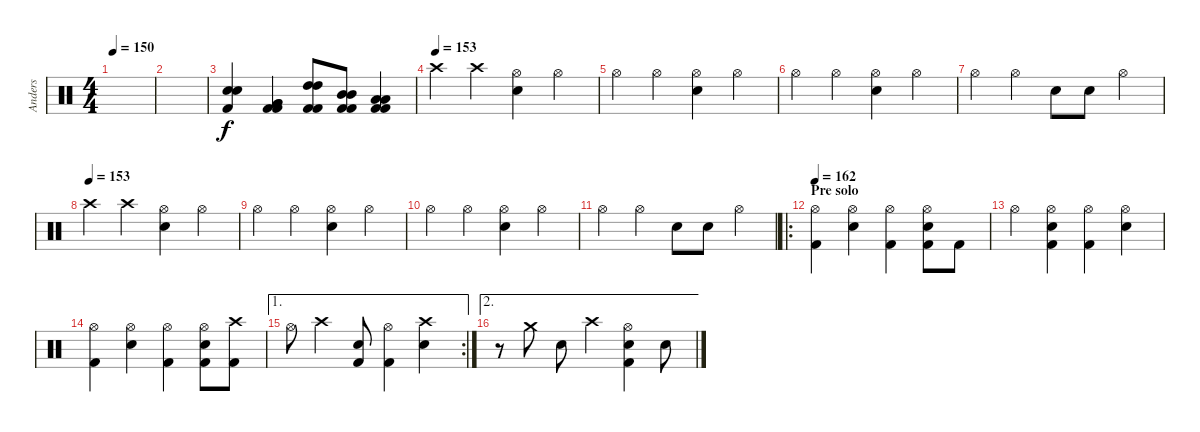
\track ("Anders" "Anders") {instrument percussion}
\staff {score}
\articulation defaults
\ts (4 4)
\tempo 150
\clef neutral
\ks c
|
|
("Snare (hit) 2" "Snare (hit) 2" "Kick (hit) 2").4 ("Kick (hit) 2" "Very Low Tom (hit)" "Very Low Tom (hit)" "Kick (hit) 2").4 ("High Tom (hit)" "Kick (hit) 2" "High Tom (hit)" "Kick (hit) 2").8 ("Mid Tom (hit)" "Kick (hit) 2" "Mid Tom (hit)" "Kick (hit) 2").8 ("Low Tom (hit)" "Kick (hit) 2" "Low Tom (hit)" "Kick (hit) 2").4 |
\tempo (153)
"Crash high (hit)".4 "Crash high (hit)".4 ("Hi-Hat (open)" "Snare (hit) 2").4 "Hi-Hat (open)".4 |
"Hi-Hat (open)".4 "Hi-Hat (open)".4 ("Hi-Hat (open)" "Snare (hit) 2").4 "Hi-Hat (open)".4 |
"Hi-Hat (open)".4 "Hi-Hat (open)".4 ("Hi-Hat (open)" "Snare (hit) 2").4 "Hi-Hat (open)".4 |
"Hi-Hat (open)".4 "Hi-Hat (open)".4 "Snare (hit) 2".8 "Snare (hit) 2".8 "Hi-Hat (open)".4 |
\tempo (153)
"Crash high (hit)".4 "Crash high (hit)".4 ("Hi-Hat (open)" "Snare (hit) 2").4 "Hi-Hat (open)".4 |
"Hi-Hat (open)".4 "Hi-Hat (open)".4 ("Hi-Hat (open)" "Snare (hit) 2").4 "Hi-Hat (open)".4 |
"Hi-Hat (open)".4 "Hi-Hat (open)".4 ("Hi-Hat (open)" "Snare (hit) 2").4 "Hi-Hat (open)".4 |
"Hi-Hat (open)".4 "Hi-Hat (open)".4 "Snare (hit) 2".8 "Snare (hit) 2".8 "Hi-Hat (open)".4 |
\ro
\section ("" "Pre solo ")
\tempo 162
("Hi-Hat (open)" "Kick (hit) 2").4 ("Hi-Hat (open)" "Snare (hit) 2").4 ("Hi-Hat (open)" "Kick (hit) 2").4 ("Hi-Hat (open)" "Snare (hit) 2" "Kick (hit) 2").8 "Kick (hit) 2".8 |
"Hi-Hat (open)".4 ("Hi-Hat (open)" "Snare (hit) 2" "Kick (hit) 2").4 ("Hi-Hat (open)" "Kick (hit) 2").4 ("Hi-Hat (open)" "Snare (hit) 2").4 |
("Hi-Hat (open)" "Kick (hit) 2").4 ("Hi-Hat (open)" "Snare (hit) 2").4 ("Hi-Hat (open)" "Kick (hit) 2").4 ("Hi-Hat (open)" "Snare (hit) 2" "Kick (hit) 2").8 ("Crash high (hit)" "Kick (hit) 2").8 |
\ae 1
\rc 2 "Hi-Hat (open)".8 "Crash high (hit)".4
("Snare (hit) 2" "Kick (hit) 2").8 ("Hi-Hat (open)" "Kick (hit) 2").4 ("Crash high (hit)" "Snare (hit) 2").4 |
\ae 2
r.8 "Crash medium (hit)".8 "Snare (hit) 2".8 "Crash high (hit)".4 ("Hi-Hat (open)" "Snare (hit) 2" "Kick (hit) 2").4 "Snare (hit) 2".8
